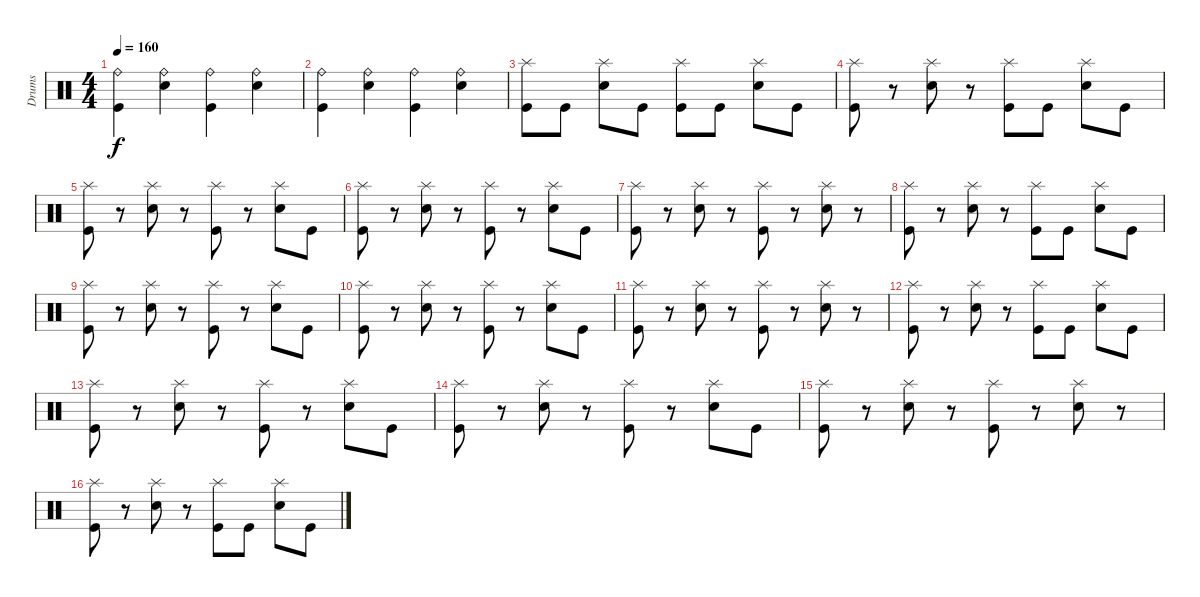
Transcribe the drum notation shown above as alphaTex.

\track ("Drums" "Drums") {instrument percussion}
\staff {score}
\articulation defaults
\ts (4 4)
\tempo 160
\clef neutral
\ks c
("Kick (hit)" "Ride (bell)").4{dy f} ("Electric Snare (hit)" "Ride (bell)").4 ("Kick (hit)" "Ride (bell)").4 ("Electric Snare (hit)" "Ride (bell)").4 |
("Kick (hit)" "Ride (bell)").4 ("Electric Snare (hit)" "Ride (bell)").4 ("Kick (hit)" "Ride (bell)").4 ("Electric Snare (hit)" "Ride (bell)").4 |
("Kick (hit)" "Splash (hit)").8 "Kick (hit)".8 ("Electric Snare (hit)" "Splash (hit)").8 "Kick (hit)".8 ("Kick (hit)" "Splash (hit)").8 "Kick (hit)".8 ("Electric Snare (hit)" "Splash (hit)").8 "Kick (hit)".8 |
("Kick (hit)" "Splash (hit)").8 r.8 ("Electric Snare (hit)" "Splash (hit)").8 r.8 ("Kick (hit)" "Splash (hit)").8 "Kick (hit)".8 ("Electric Snare (hit)" "Splash (hit)").8 "Kick (hit)".8 |
("Kick (hit)" "Splash (hit)").8 r.8 ("Electric Snare (hit)" "Splash (hit)").8 r.8 ("Kick (hit)" "Splash (hit)").8 r.8 ("Electric Snare (hit)" "Splash (hit)").8 "Kick (hit)".8 |
("Kick (hit)" "Splash (hit)").8 r.8 ("Electric Snare (hit)" "Splash (hit)").8 r.8 ("Kick (hit)" "Splash (hit)").8 r.8 ("Electric Snare (hit)" "Splash (hit)").8 "Kick (hit)".8 |
("Kick (hit)" "Splash (hit)").8 r.8 ("Electric Snare (hit)" "Splash (hit)").8 r.8 ("Kick (hit)" "Splash (hit)").8 r.8 ("Electric Snare (hit)" "Splash (hit)").8 r.8 |
("Kick (hit)" "Splash (hit)").8 r.8 ("Electric Snare (hit)" "Splash (hit)").8 r.8 ("Kick (hit)" "Splash (hit)").8 "Kick (hit)".8 ("Electric Snare (hit)" "Splash (hit)").8 "Kick (hit)".8 |
("Kick (hit)" "Splash (hit)").8 r.8 ("Electric Snare (hit)" "Splash (hit)").8 r.8 ("Kick (hit)" "Splash (hit)").8 r.8 ("Electric Snare (hit)" "Splash (hit)").8 "Kick (hit)".8 |
("Kick (hit)" "Splash (hit)").8 r.8 ("Electric Snare (hit)" "Splash (hit)").8 r.8 ("Kick (hit)" "Splash (hit)").8 r.8 ("Electric Snare (hit)" "Splash (hit)").8 "Kick (hit)".8 |
("Kick (hit)" "Splash (hit)").8 r.8 ("Electric Snare (hit)" "Splash (hit)").8 r.8 ("Kick (hit)" "Splash (hit)").8 r.8 ("Electric Snare (hit)" "Splash (hit)").8 r.8 |
("Kick (hit)" "Splash (hit)").8 r.8 ("Electric Snare (hit)" "Splash (hit)").8 r.8 ("Kick (hit)" "Splash (hit)").8 "Kick (hit)".8 ("Electric Snare (hit)" "Splash (hit)").8 "Kick (hit)".8 |
("Kick (hit)" "Splash (hit)").8 r.8 ("Electric Snare (hit)" "Splash (hit)").8 r.8 ("Kick (hit)" "Splash (hit)").8 r.8 ("Electric Snare (hit)" "Splash (hit)").8 "Kick (hit)".8 |
("Kick (hit)" "Splash (hit)").8 r.8 ("Electric Snare (hit)" "Splash (hit)").8 r.8 ("Kick (hit)" "Splash (hit)").8 r.8 ("Electric Snare (hit)" "Splash (hit)").8 "Kick (hit)".8 |
("Kick (hit)" "Splash (hit)").8 r.8 ("Electric Snare (hit)" "Splash (hit)").8 r.8 ("Kick (hit)" "Splash (hit)").8 r.8 ("Electric Snare (hit)" "Splash (hit)").8 r.8 |
("Kick (hit)" "Splash (hit)").8 r.8 ("Electric Snare (hit)" "Splash (hit)").8 r.8 ("Kick (hit)" "Splash (hit)").8 "Kick (hit)".8 ("Electric Snare (hit)" "Splash (hit)").8 "Kick (hit)".8
